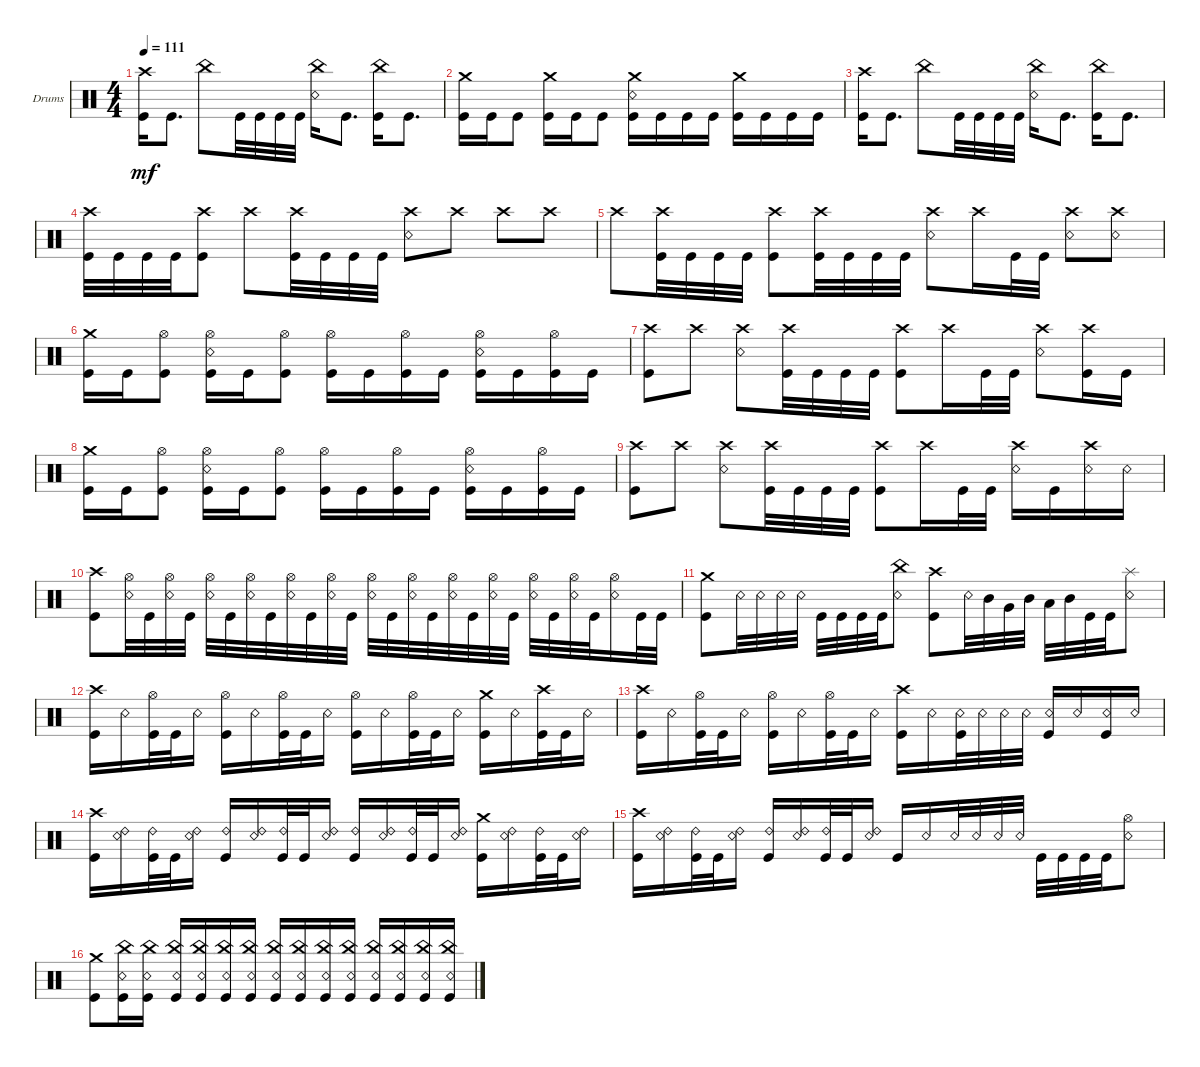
\defaultSystemsLayout 4
\bracketExtendMode groupsimilarinstruments
\firstSystemTrackNameOrientation horizontal
\otherSystemsTrackNameOrientation horizontal
\track ("Drums" "Drums") {instrument percussion}
\staff {score}
\articulation defaults
\ts (4 4)
\tempo 111
\clef neutral
\ks c
("Kick (hit)" "Crash high (hit)").16{dy mf} "Kick (hit)".8{d} "China (hit)".8 "Kick (hit)".32 "Kick (hit)".32 "Kick (hit)".32 "Kick (hit)".32 ("Snare (rim shot)" "China (hit)").16 "Kick (hit)".8{d} ("Kick (hit)" "China (hit)").16 "Kick (hit)".8{d} |
("Kick (hit)" "Crash medium (hit)").16 "Kick (hit)".16 "Kick (hit)".8 ("Kick (hit)" "Crash medium (hit)").16 "Kick (hit)".16 "Kick (hit)".8 ("Kick (hit)" "Crash medium (hit)" "Snare (rim shot)").16 "Kick (hit)".16 "Kick (hit)".16 "Kick (hit)".16 ("Kick (hit)" "Crash medium (hit)").16 "Kick (hit)".16 "Kick (hit)".16 "Kick (hit)".16 |
("Kick (hit)" "Crash high (hit)").16 "Kick (hit)".8{d} "China (hit)".8 "Kick (hit)".32 "Kick (hit)".32 "Kick (hit)".32 "Kick (hit)".32 ("Snare (rim shot)" "China (hit)").16 "Kick (hit)".8{d} ("Kick (hit)" "China (hit)").16 "Kick (hit)".8{d} |
("Kick (hit)" "Crash high (hit)").32 "Kick (hit)".32 "Kick (hit)".32 "Kick (hit)".32 ("Kick (hit)" "Crash high (hit)").8 "Crash high (hit)".8 ("Kick (hit)" "Crash high (hit)").32 "Kick (hit)".32 "Kick (hit)".32 "Kick (hit)".32 ("Crash high (hit)" "Snare (rim shot)").8 "Crash high (hit)".8 "Crash high (hit)".8 "Crash high (hit)".8 |
"Crash high (hit)".8 ("Kick (hit)" "Crash high (hit)").32 "Kick (hit)".32 "Kick (hit)".32 "Kick (hit)".32 ("Kick (hit)" "Crash high (hit)").8 ("Kick (hit)" "Crash high (hit)").32 "Kick (hit)".32 "Kick (hit)".32 "Kick (hit)".32 ("Snare (rim shot)" "Crash high (hit)").8 "Crash high (hit)".16 "Kick (hit)".32 "Kick (hit)".32 ("Snare (rim shot)" "Crash high (hit)").8 ("Snare (rim shot)" "Crash high (hit)").8 |
("Kick (hit)" "Crash medium (hit)").16 "Kick (hit)".16 ("Kick (hit)" "Hi-Hat (open)").8 ("Kick (hit)" "Hi-Hat (open)" "Snare (rim shot)").16 "Kick (hit)".16 ("Kick (hit)" "Hi-Hat (open)").8 ("Kick (hit)" "Hi-Hat (open)").16 "Kick (hit)".16 ("Kick (hit)" "Hi-Hat (open)").16 "Kick (hit)".16 ("Kick (hit)" "Hi-Hat (open)" "Snare (rim shot)").16 "Kick (hit)".16 ("Kick (hit)" "Hi-Hat (open)").16 "Kick (hit)".16 |
("Kick (hit)" "Crash high (hit)").8 "Crash high (hit)".8 ("Crash high (hit)" "Snare (rim shot)").8 ("Crash high (hit)" "Kick (hit)").32 "Kick (hit)".32 "Kick (hit)".32 "Kick (hit)".32 ("Kick (hit)" "Crash high (hit)").8 "Crash high (hit)".16 "Kick (hit)".32 "Kick (hit)".32 ("Snare (rim shot)" "Crash high (hit)").8 ("Kick (hit)" "Crash high (hit)").16 "Kick (hit)".16 |
("Kick (hit)" "Crash medium (hit)").16 "Kick (hit)".16 ("Kick (hit)" "Hi-Hat (open)").8 ("Kick (hit)" "Hi-Hat (open)" "Snare (rim shot)").16 "Kick (hit)".16 ("Kick (hit)" "Hi-Hat (open)").8 ("Kick (hit)" "Hi-Hat (open)").16 "Kick (hit)".16 ("Kick (hit)" "Hi-Hat (open)").16 "Kick (hit)".16 ("Kick (hit)" "Hi-Hat (open)" "Snare (rim shot)").16 "Kick (hit)".16 ("Kick (hit)" "Hi-Hat (open)").16 "Kick (hit)".16 |
("Kick (hit)" "Crash high (hit)").8 "Crash high (hit)".8 ("Crash high (hit)" "Snare (rim shot)").8 ("Crash high (hit)" "Kick (hit)").32 "Kick (hit)".32 "Kick (hit)".32 "Kick (hit)".32 ("Kick (hit)" "Crash high (hit)").8 "Crash high (hit)".16 "Kick (hit)".32 "Kick (hit)".32 ("Snare (rim shot)" "Crash high (hit)").16 "Kick (hit)".16 ("Crash high (hit)" "Snare (rim shot)").16 "Snare (rim shot)".16 |
("Kick (hit)" "Crash high (hit)").8 ("Snare (rim shot)" "Hi-Hat (open)").32 "Kick (hit)".32 ("Snare (rim shot)" "Hi-Hat (open)").32 "Kick (hit)".32 ("Snare (rim shot)" "Hi-Hat (open)").32 "Kick (hit)".32 ("Snare (rim shot)" "Hi-Hat (open)").32 "Kick (hit)".32 ("Snare (rim shot)" "Hi-Hat (open)").32 "Kick (hit)".32 ("Snare (rim shot)" "Hi-Hat (open)").32 "Kick (hit)".32 ("Snare (rim shot)" "Hi-Hat (open)").32 "Kick (hit)".32 ("Snare (rim shot)" "Hi-Hat (open)").32 "Kick (hit)".32 ("Snare (rim shot)" "Hi-Hat (open)").32 "Kick (hit)".32 ("Snare (rim shot)" "Hi-Hat (open)").32 "Kick (hit)".32 ("Snare (rim shot)" "Hi-Hat (open)").32 "Kick (hit)".32 ("Snare (rim shot)" "Hi-Hat (open)").32 "Kick (hit)".32 ("Snare (rim shot)" "Hi-Hat (open)").16 "Kick (hit)".32 "Kick (hit)".32 |
("Kick (hit)" "Crash medium (hit)").8 "Snare (rim shot)".32 "Snare (rim shot)".32 "Snare (rim shot)".32 "Snare (rim shot)".32 "Kick (hit)".32 "Kick (hit)".32 "Kick (hit)".32 "Kick (hit)".32 ("Snare (rim shot)" "China (hit)").8 ("Crash high (hit)" "Kick (hit)").8 "Snare (rim shot)".32 "Mid Tom (hit)".32 "Very Low Tom (hit)".32 "Mid Tom (hit)".32 "Low Tom (hit)".32 "Mid Tom (hit)".32 "Kick (hit)".32 "Kick (hit)".32 ("Snare (rim shot)" "Splash (hit)").8 |
("Kick (hit)" "Crash high (hit)").16 "Snare (rim shot)".16 ("Kick (hit)" "Hi-Hat (open)").32 "Kick (hit)".32 "Snare (rim shot)".16 ("Kick (hit)" "Hi-Hat (open)").16 "Snare (rim shot)".16 ("Kick (hit)" "Hi-Hat (open)").32 "Kick (hit)".32 "Snare (rim shot)".16 ("Kick (hit)" "Hi-Hat (open)").16 "Snare (rim shot)".16 ("Kick (hit)" "Hi-Hat (open)").32 "Kick (hit)".32 "Snare (rim shot)".16 ("Kick (hit)" "Crash medium (hit)").16 "Snare (rim shot)".16 ("Kick (hit)" "Crash high (hit)").32 "Kick (hit)".32 "Snare (rim shot)".16 |
("Kick (hit)" "Crash high (hit)").16 "Snare (rim shot)".16 ("Kick (hit)" "Hi-Hat (open)").32 "Kick (hit)".32 "Snare (rim shot)".16 ("Kick (hit)" "Hi-Hat (open)").16 "Snare (rim shot)".16 ("Kick (hit)" "Hi-Hat (open)").32 "Kick (hit)".32 "Snare (rim shot)".16 ("Kick (hit)" "Crash high (hit)").16 "Snare (rim shot)".16 ("Snare (rim shot)" "Kick (hit)").32 "Snare (rim shot)".32 "Snare (rim shot)".32 "Snare (rim shot)".32 ("Snare (rim shot)" "Kick (hit)").16 "Snare (rim shot)".16 ("Snare (rim shot)" "Kick (hit)").16 "Snare (rim shot)".16 |
("Kick (hit)" "Crash high (hit)").16 ("Snare (rim shot)" "Ride (bell) 2").16 ("Kick (hit)" "Ride (bell) 2").32 "Kick (hit)".32 ("Snare (rim shot)" "Ride (bell) 2").16 ("Kick (hit)" "Ride (bell) 2").16 ("Snare (rim shot)" "Ride (bell) 2").16 ("Kick (hit)" "Ride (bell) 2").32 "Kick (hit)".32 ("Snare (rim shot)" "Ride (bell) 2").16 ("Kick (hit)" "Ride (bell) 2").16 ("Snare (rim shot)" "Ride (bell) 2").16 ("Kick (hit)" "Ride (bell) 2").32 "Kick (hit)".32 ("Snare (rim shot)" "Ride (bell) 2").16 ("Kick (hit)" "Crash medium (hit)").16 ("Snare (rim shot)" "Ride (bell) 2").16 ("Kick (hit)" "Ride (bell) 2").32 "Kick (hit)".32 ("Snare (rim shot)" "Ride (bell) 2").16 |
("Kick (hit)" "Crash high (hit)").16 ("Snare (rim shot)" "Ride (bell) 2").16 ("Kick (hit)" "Ride (bell) 2").32 "Kick (hit)".32 ("Snare (rim shot)" "Ride (bell) 2").16 ("Kick (hit)" "Ride (bell) 2").16 ("Snare (rim shot)" "Ride (bell) 2").16 ("Kick (hit)" "Ride (bell) 2").32 "Kick (hit)".32 ("Snare (rim shot)" "Ride (bell) 2").16 "Kick (hit)".16 "Snare (rim shot)".16 "Snare (rim shot)".32 "Snare (rim shot)".32 "Snare (rim shot)".32 "Snare (rim shot)".32 "Kick (hit)".32 "Kick (hit)".32 "Kick (hit)".32 "Kick (hit)".32 ("Snare (rim shot)" "Hi-Hat (open)").8 |
("Crash medium (hit)" "Kick (hit)").8 ("Kick (hit)" "Snare (rim shot)" "China (hit)").16 ("Kick (hit)" "Snare (rim shot)" "China (hit)").16 ("Kick (hit)" "Snare (rim shot)" "China (hit)").16 ("Kick (hit)" "Snare (rim shot)" "China (hit)").16 ("Kick (hit)" "Snare (rim shot)" "China (hit)").16 ("Kick (hit)" "Snare (rim shot)" "China (hit)").16 ("Kick (hit)" "Snare (rim shot)" "China (hit)").16 ("Kick (hit)" "Snare (rim shot)" "China (hit)").16 ("Kick (hit)" "Snare (rim shot)" "China (hit)").16 ("Kick (hit)" "Snare (rim shot)" "China (hit)").16 ("Kick (hit)" "Snare (rim shot)" "China (hit)").16 ("Kick (hit)" "Snare (rim shot)" "China (hit)").16 ("Kick (hit)" "Snare (rim shot)" "China (hit)").16 ("Kick (hit)" "Snare (rim shot)" "China (hit)").16
